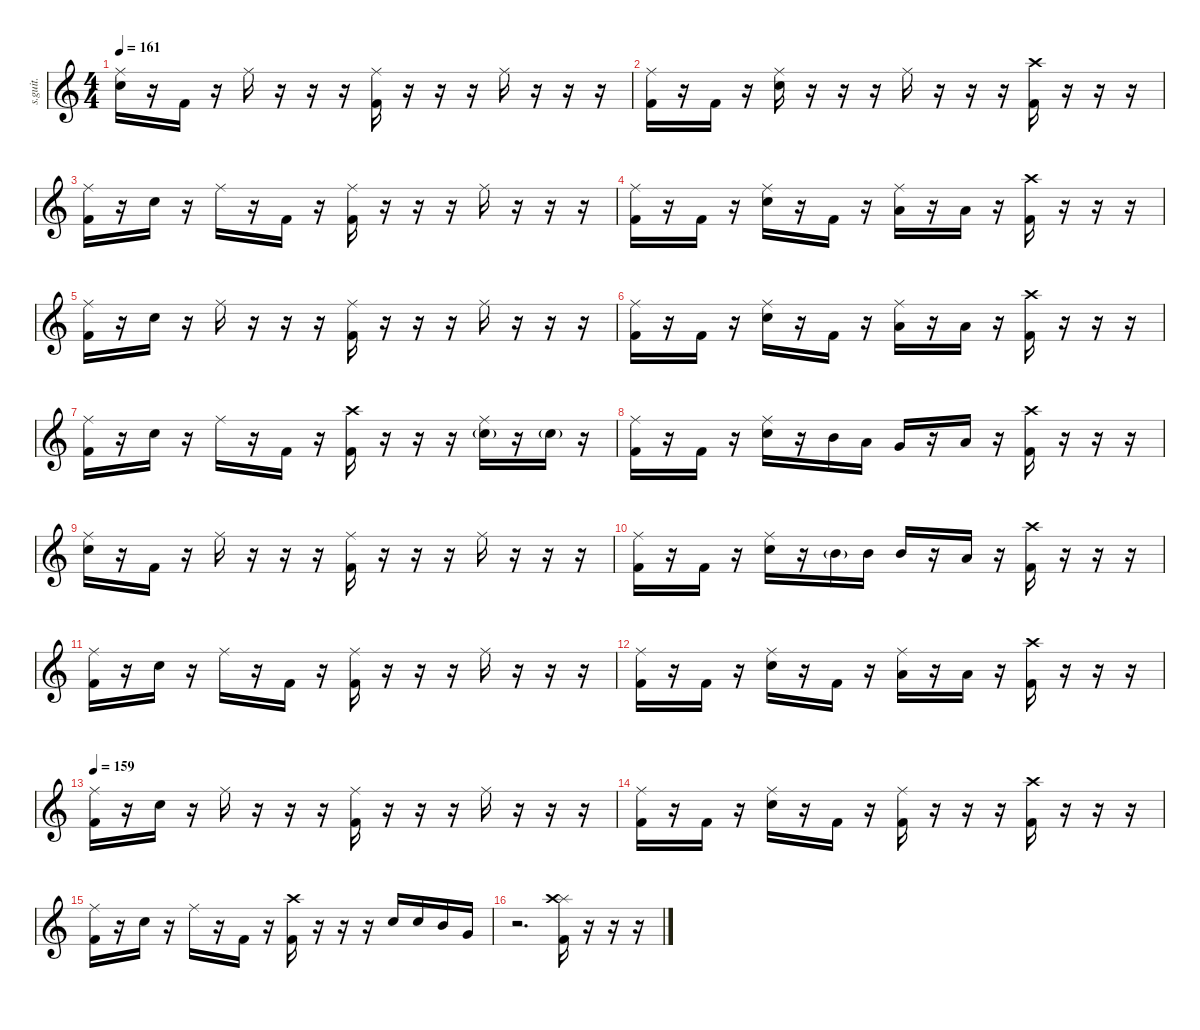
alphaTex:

\defaultSystemsLayout 4
\hideDynamics
\bracketExtendMode nobrackets
\track ("Drumkit" "s.guit.") {instrument percussion}
\staff {score}
\articulation defaults
\ts (4 4)
\tempo 161
\clef g2
\ks c
("Ride (middle)" "Electric Snare (hit)").16{lyrics (0 "") lyrics (1 "") lyrics (2 "") lyrics (3 "") lyrics (4 "") dy f} r.16 "Kick (hit) 2".16{lyrics (0 "") lyrics (1 "") lyrics (2 "") lyrics (3 "") lyrics (4 "")} r.16 "Ride (middle)".16{lyrics (0 "") lyrics (1 "") lyrics (2 "") lyrics (3 "") lyrics (4 "")} r.16 r.16 r.16 ("Ride (middle)" "Kick (hit) 2").16{lyrics (0 "") lyrics (1 "") lyrics (2 "") lyrics (3 "") lyrics (4 "")} r.16 r.16 r.16 "Ride (middle)".16{lyrics (0 "") lyrics (1 "") lyrics (2 "") lyrics (3 "") lyrics (4 "")} r.16 r.16 r.16 |
("Ride (middle)" "Kick (hit) 2").16{lyrics (0 "") lyrics (1 "") lyrics (2 "") lyrics (3 "") lyrics (4 "")} r.16 "Kick (hit) 2".16{lyrics (0 "") lyrics (1 "") lyrics (2 "") lyrics (3 "") lyrics (4 "")} r.16 ("Ride (middle)" "Electric Snare (hit)").16{lyrics (0 "") lyrics (1 "") lyrics (2 "") lyrics (3 "") lyrics (4 "")} r.16 r.16 r.16 "Ride (middle)".16{lyrics (0 "") lyrics (1 "") lyrics (2 "") lyrics (3 "") lyrics (4 "")} r.16 r.16 r.16 ("Crash high (hit)" "Kick (hit) 2").16{lyrics (0 "") lyrics (1 "") lyrics (2 "") lyrics (3 "") lyrics (4 "")} r.16 r.16 r.16 |
("Ride (middle)" "Kick (hit) 2").16{lyrics (0 "") lyrics (1 "") lyrics (2 "") lyrics (3 "") lyrics (4 "")} r.16 "Electric Snare (hit)".16{lyrics (0 "") lyrics (1 "") lyrics (2 "") lyrics (3 "") lyrics (4 "")} r.16 "Ride (middle)".16{lyrics (0 "") lyrics (1 "") lyrics (2 "") lyrics (3 "") lyrics (4 "")} r.16 "Kick (hit) 2".16{lyrics (0 "") lyrics (1 "") lyrics (2 "") lyrics (3 "") lyrics (4 "")} r.16 ("Ride (middle)" "Kick (hit) 2").16{lyrics (0 "") lyrics (1 "") lyrics (2 "") lyrics (3 "") lyrics (4 "")} r.16 r.16 r.16 "Ride (middle)".16{lyrics (0 "") lyrics (1 "") lyrics (2 "") lyrics (3 "") lyrics (4 "")} r.16 r.16 r.16 |
("Ride (middle)" "Kick (hit) 2").16{lyrics (0 "") lyrics (1 "") lyrics (2 "") lyrics (3 "") lyrics (4 "")} r.16 "Kick (hit) 2".16{lyrics (0 "") lyrics (1 "") lyrics (2 "") lyrics (3 "") lyrics (4 "")} r.16 ("Ride (middle)" "Electric Snare (hit)").16{lyrics (0 "") lyrics (1 "") lyrics (2 "") lyrics (3 "") lyrics (4 "")} r.16 "Kick (hit) 2".16{lyrics (0 "") lyrics (1 "") lyrics (2 "") lyrics (3 "") lyrics (4 "")} r.16 ("Ride (middle)" "Low Tom (hit)").16{lyrics (0 "") lyrics (1 "") lyrics (2 "") lyrics (3 "") lyrics (4 "")} r.16 "Low Floor Tom (hit)".16{lyrics (0 "") lyrics (1 "") lyrics (2 "") lyrics (3 "") lyrics (4 "")} r.16 ("Crash high (hit)" "Kick (hit) 2").16{lyrics (0 "") lyrics (1 "") lyrics (2 "") lyrics (3 "") lyrics (4 "")} r.16 r.16 r.16 |
("Ride (middle)" "Kick (hit) 2").16{lyrics (0 "") lyrics (1 "") lyrics (2 "") lyrics (3 "") lyrics (4 "")} r.16 "Electric Snare (hit)".16{lyrics (0 "") lyrics (1 "") lyrics (2 "") lyrics (3 "") lyrics (4 "")} r.16 "Ride (middle)".16{lyrics (0 "") lyrics (1 "") lyrics (2 "") lyrics (3 "") lyrics (4 "")} r.16 r.16 r.16 ("Ride (middle)" "Kick (hit) 2").16{lyrics (0 "") lyrics (1 "") lyrics (2 "") lyrics (3 "") lyrics (4 "")} r.16 r.16 r.16 "Ride (middle)".16{lyrics (0 "") lyrics (1 "") lyrics (2 "") lyrics (3 "") lyrics (4 "")} r.16 r.16 r.16 |
("Ride (middle)" "Kick (hit) 2").16{lyrics (0 "") lyrics (1 "") lyrics (2 "") lyrics (3 "") lyrics (4 "")} r.16 "Kick (hit) 2".16{lyrics (0 "") lyrics (1 "") lyrics (2 "") lyrics (3 "") lyrics (4 "")} r.16 ("Ride (middle)" "Electric Snare (hit)").16{lyrics (0 "") lyrics (1 "") lyrics (2 "") lyrics (3 "") lyrics (4 "")} r.16 "Kick (hit) 2".16{lyrics (0 "") lyrics (1 "") lyrics (2 "") lyrics (3 "") lyrics (4 "")} r.16 ("Ride (middle)" "Low Tom (hit)").16{lyrics (0 "") lyrics (1 "") lyrics (2 "") lyrics (3 "") lyrics (4 "")} r.16 "Low Floor Tom (hit)".16{lyrics (0 "") lyrics (1 "") lyrics (2 "") lyrics (3 "") lyrics (4 "")} r.16 ("Crash high (hit)" "Kick (hit) 2").16{lyrics (0 "") lyrics (1 "") lyrics (2 "") lyrics (3 "") lyrics (4 "")} r.16 r.16 r.16 |
("Ride (middle)" "Kick (hit) 2").16{lyrics (0 "") lyrics (1 "") lyrics (2 "") lyrics (3 "") lyrics (4 "")} r.16 "Electric Snare (hit)".16{lyrics (0 "") lyrics (1 "") lyrics (2 "") lyrics (3 "") lyrics (4 "")} r.16 "Ride (middle)".16{lyrics (0 "") lyrics (1 "") lyrics (2 "") lyrics (3 "") lyrics (4 "")} r.16 "Kick (hit) 2".16{lyrics (0 "") lyrics (1 "") lyrics (2 "") lyrics (3 "") lyrics (4 "")} r.16 ("Crash high (hit)" "Kick (hit) 2").16{lyrics (0 "") lyrics (1 "") lyrics (2 "") lyrics (3 "") lyrics (4 "")} r.16 r.16 r.16 ("Ride (middle)" "Electric Snare (hit)"{g}).16{lyrics (0 "") lyrics (1 "") lyrics (2 "") lyrics (3 "") lyrics (4 "")} r.16 "Electric Snare (hit)"{g}.16{lyrics (0 "") lyrics (1 "") lyrics (2 "") lyrics (3 "") lyrics (4 "") dy mp} r.16 |
("Ride (middle)" "Kick (hit) 2").16{lyrics (0 "") lyrics (1 "") lyrics (2 "") lyrics (3 "") lyrics (4 "") dy f} r.16 "Kick (hit) 2".16{lyrics (0 "") lyrics (1 "") lyrics (2 "") lyrics (3 "") lyrics (4 "")} r.16 ("Ride (middle)" "Electric Snare (hit)").16{lyrics (0 "") lyrics (1 "") lyrics (2 "") lyrics (3 "") lyrics (4 "")} r.16 "Mid Tom (hit)".16{lyrics (0 "") lyrics (1 "") lyrics (2 "") lyrics (3 "") lyrics (4 "")} "Low Tom (hit)".16{lyrics (0 "") lyrics (1 "") lyrics (2 "") lyrics (3 "") lyrics (4 "")} "Very Low Tom (hit)".16{lyrics (0 "") lyrics (1 "") lyrics (2 "") lyrics (3 "") lyrics (4 "")} r.16 "Low Floor Tom (hit)".16{lyrics (0 "") lyrics (1 "") lyrics (2 "") lyrics (3 "") lyrics (4 "")} r.16 ("Crash high (hit)" "Kick (hit) 2").16{lyrics (0 "") lyrics (1 "") lyrics (2 "") lyrics (3 "") lyrics (4 "")} r.16 r.16 r.16 |
("Ride (middle)" "Electric Snare (hit)").16{lyrics (0 "") lyrics (1 "") lyrics (2 "") lyrics (3 "") lyrics (4 "")} r.16 "Kick (hit) 2".16{lyrics (0 "") lyrics (1 "") lyrics (2 "") lyrics (3 "") lyrics (4 "")} r.16 "Ride (middle)".16{lyrics (0 "") lyrics (1 "") lyrics (2 "") lyrics (3 "") lyrics (4 "")} r.16 r.16 r.16 ("Ride (middle)" "Kick (hit) 2").16{lyrics (0 "") lyrics (1 "") lyrics (2 "") lyrics (3 "") lyrics (4 "")} r.16 r.16 r.16 "Ride (middle)".16{lyrics (0 "") lyrics (1 "") lyrics (2 "") lyrics (3 "") lyrics (4 "")} r.16 r.16 r.16 |
("Ride (middle)" "Kick (hit) 2").16{lyrics (0 "") lyrics (1 "") lyrics (2 "") lyrics (3 "") lyrics (4 "")} r.16 "Kick (hit) 2".16{lyrics (0 "") lyrics (1 "") lyrics (2 "") lyrics (3 "") lyrics (4 "")} r.16 ("Ride (middle)" "Electric Snare (hit)").16{lyrics (0 "") lyrics (1 "") lyrics (2 "") lyrics (3 "") lyrics (4 "")} r.16 "Mid Tom (hit)"{g}.16{lyrics (0 "") lyrics (1 "") lyrics (2 "") lyrics (3 "") lyrics (4 "") dy mp} "Mid Tom (hit)".16{lyrics (0 "") lyrics (1 "") lyrics (2 "") lyrics (3 "") lyrics (4 "") dy f} "Mid Tom (hit)".16{lyrics (0 "") lyrics (1 "") lyrics (2 "") lyrics (3 "") lyrics (4 "")} r.16 "Low Tom (hit)".16{lyrics (0 "") lyrics (1 "") lyrics (2 "") lyrics (3 "") lyrics (4 "")} r.16 ("Crash high (hit)" "Kick (hit) 2").16{lyrics (0 "") lyrics (1 "") lyrics (2 "") lyrics (3 "") lyrics (4 "")} r.16 r.16 r.16 |
("Ride (middle)" "Kick (hit) 2").16{lyrics (0 "") lyrics (1 "") lyrics (2 "") lyrics (3 "") lyrics (4 "")} r.16 "Electric Snare (hit)".16{lyrics (0 "") lyrics (1 "") lyrics (2 "") lyrics (3 "") lyrics (4 "")} r.16 "Ride (middle)".16{lyrics (0 "") lyrics (1 "") lyrics (2 "") lyrics (3 "") lyrics (4 "")} r.16 "Kick (hit) 2".16{lyrics (0 "") lyrics (1 "") lyrics (2 "") lyrics (3 "") lyrics (4 "")} r.16 ("Ride (middle)" "Kick (hit) 2").16{lyrics (0 "") lyrics (1 "") lyrics (2 "") lyrics (3 "") lyrics (4 "")} r.16 r.16 r.16 "Ride (middle)".16{lyrics (0 "") lyrics (1 "") lyrics (2 "") lyrics (3 "") lyrics (4 "")} r.16 r.16 r.16 |
("Ride (middle)" "Kick (hit) 2").16{lyrics (0 "") lyrics (1 "") lyrics (2 "") lyrics (3 "") lyrics (4 "")} r.16 "Kick (hit) 2".16{lyrics (0 "") lyrics (1 "") lyrics (2 "") lyrics (3 "") lyrics (4 "")} r.16 ("Ride (middle)" "Electric Snare (hit)").16{lyrics (0 "") lyrics (1 "") lyrics (2 "") lyrics (3 "") lyrics (4 "")} r.16 "Kick (hit) 2".16{lyrics (0 "") lyrics (1 "") lyrics (2 "") lyrics (3 "") lyrics (4 "")} r.16 ("Ride (middle)" "Low Tom (hit)").16{lyrics (0 "") lyrics (1 "") lyrics (2 "") lyrics (3 "") lyrics (4 "")} r.16 "Low Floor Tom (hit)".16{lyrics (0 "") lyrics (1 "") lyrics (2 "") lyrics (3 "") lyrics (4 "")} r.16 ("Crash high (hit)" "Kick (hit) 2").16{lyrics (0 "") lyrics (1 "") lyrics (2 "") lyrics (3 "") lyrics (4 "")} r.16 r.16 r.16 |
\tempo 159
("Ride (middle)" "Kick (hit) 2").16{lyrics (0 "") lyrics (1 "") lyrics (2 "") lyrics (3 "") lyrics (4 "")} r.16 "Electric Snare (hit)".16{lyrics (0 "") lyrics (1 "") lyrics (2 "") lyrics (3 "") lyrics (4 "")} r.16 "Ride (middle)".16{lyrics (0 "") lyrics (1 "") lyrics (2 "") lyrics (3 "") lyrics (4 "")} r.16 r.16 r.16 ("Ride (middle)" "Kick (hit) 2").16{lyrics (0 "") lyrics (1 "") lyrics (2 "") lyrics (3 "") lyrics (4 "")} r.16 r.16 r.16 "Ride (middle)".16{lyrics (0 "") lyrics (1 "") lyrics (2 "") lyrics (3 "") lyrics (4 "")} r.16 r.16 r.16 |
("Ride (middle)" "Kick (hit) 2").16{lyrics (0 "") lyrics (1 "") lyrics (2 "") lyrics (3 "") lyrics (4 "")} r.16 "Kick (hit) 2".16{lyrics (0 "") lyrics (1 "") lyrics (2 "") lyrics (3 "") lyrics (4 "")} r.16 ("Ride (middle)" "Electric Snare (hit)").16{lyrics (0 "") lyrics (1 "") lyrics (2 "") lyrics (3 "") lyrics (4 "")} r.16 "Kick (hit) 2".16{lyrics (0 "") lyrics (1 "") lyrics (2 "") lyrics (3 "") lyrics (4 "")} r.16 ("Ride (middle)" "Kick (hit) 2").16{lyrics (0 "") lyrics (1 "") lyrics (2 "") lyrics (3 "") lyrics (4 "")} r.16 r.16 r.16 ("Crash high (hit)" "Kick (hit) 2").16{lyrics (0 "") lyrics (1 "") lyrics (2 "") lyrics (3 "") lyrics (4 "")} r.16 r.16 r.16 |
("Ride (middle)" "Kick (hit) 2").16{lyrics (0 "") lyrics (1 "") lyrics (2 "") lyrics (3 "") lyrics (4 "")} r.16 "Electric Snare (hit)".16{lyrics (0 "") lyrics (1 "") lyrics (2 "") lyrics (3 "") lyrics (4 "")} r.16 "Ride (middle)".16{lyrics (0 "") lyrics (1 "") lyrics (2 "") lyrics (3 "") lyrics (4 "")} r.16 "Kick (hit) 2".16{lyrics (0 "") lyrics (1 "") lyrics (2 "") lyrics (3 "") lyrics (4 "")} r.16 ("Crash high (hit)" "Kick (hit) 2").16{lyrics (0 "") lyrics (1 "") lyrics (2 "") lyrics (3 "") lyrics (4 "")} r.16 r.16 r.16 "Electric Snare (hit)".16{lyrics (0 "") lyrics (1 "") lyrics (2 "") lyrics (3 "") lyrics (4 "")} "Electric Snare (hit)".16{lyrics (0 "") lyrics (1 "") lyrics (2 "") lyrics (3 "") lyrics (4 "")} "Mid Tom (hit)".16{lyrics (0 "") lyrics (1 "") lyrics (2 "") lyrics (3 "") lyrics (4 "")} "Very Low Tom (hit)".16{lyrics (0 "") lyrics (1 "") lyrics (2 "") lyrics (3 "") lyrics (4 "")} |
r.2{d} ("Splash (hit)" "Crash high (hit)" "Kick (hit) 2").16{lyrics (0 "") lyrics (1 "") lyrics (2 "") lyrics (3 "") lyrics (4 "")} r.16 r.16 r.16
